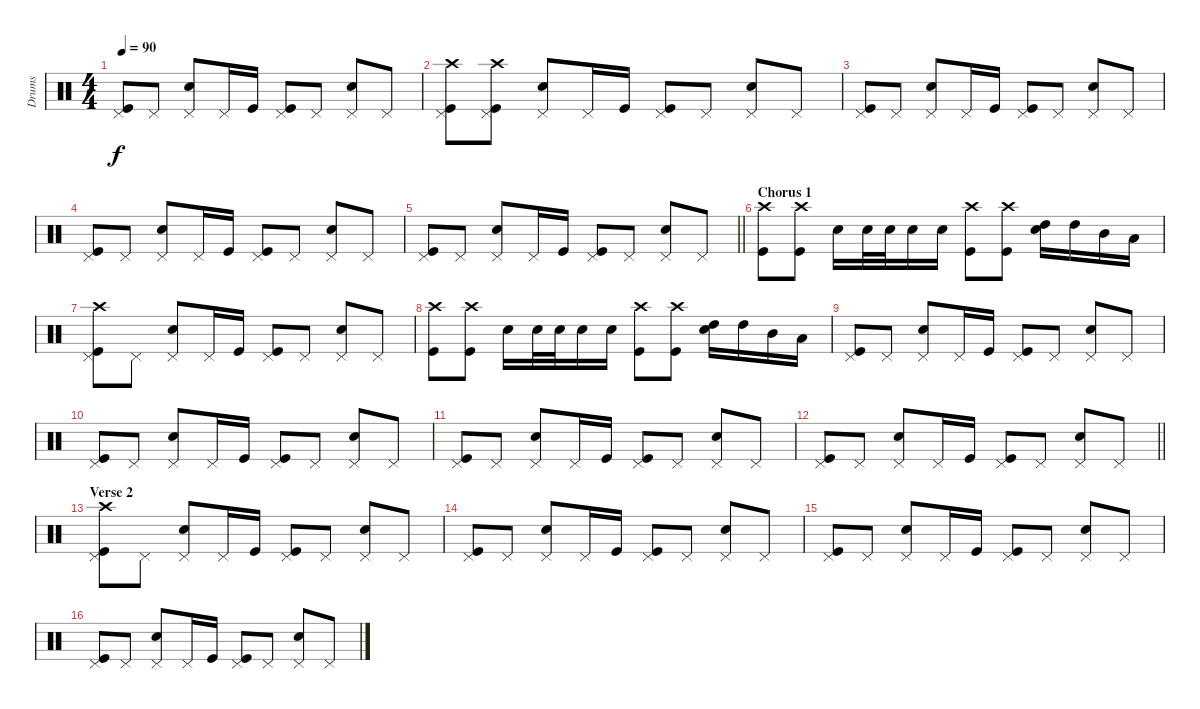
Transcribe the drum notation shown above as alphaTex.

\track ("Drums" "Drums") {instrument percussion}
\staff {score}
\articulation defaults
\ts (4 4)
\tempo 90
\clef neutral
\ks c
("Pedal Hi-Hat (hit)" "Kick (hit)").8{dy f} "Pedal Hi-Hat (hit)".8 ("Pedal Hi-Hat (hit)" "Snare (hit) 2").8 "Pedal Hi-Hat (hit)".16 "Kick (hit)".16 ("Pedal Hi-Hat (hit)" "Kick (hit)").8 "Pedal Hi-Hat (hit)".8 ("Pedal Hi-Hat (hit)" "Snare (hit) 2").8 "Pedal Hi-Hat (hit)".8 |
("Pedal Hi-Hat (hit)" "Kick (hit)" "Crash high (hit)").8 ("Pedal Hi-Hat (hit)" "Kick (hit)" "Crash high (hit)").8 ("Pedal Hi-Hat (hit)" "Snare (hit) 2").8 "Pedal Hi-Hat (hit)".16 "Kick (hit)".16 ("Pedal Hi-Hat (hit)" "Kick (hit)").8 "Pedal Hi-Hat (hit)".8 ("Pedal Hi-Hat (hit)" "Snare (hit) 2").8 "Pedal Hi-Hat (hit)".8 |
("Pedal Hi-Hat (hit)" "Kick (hit)").8 "Pedal Hi-Hat (hit)".8 ("Pedal Hi-Hat (hit)" "Snare (hit) 2").8 "Pedal Hi-Hat (hit)".16 "Kick (hit)".16 ("Pedal Hi-Hat (hit)" "Kick (hit)").8 "Pedal Hi-Hat (hit)".8 ("Pedal Hi-Hat (hit)" "Snare (hit) 2").8 "Pedal Hi-Hat (hit)".8 |
("Pedal Hi-Hat (hit)" "Kick (hit)").8 "Pedal Hi-Hat (hit)".8 ("Pedal Hi-Hat (hit)" "Snare (hit) 2").8 "Pedal Hi-Hat (hit)".16 "Kick (hit)".16 ("Pedal Hi-Hat (hit)" "Kick (hit)").8 "Pedal Hi-Hat (hit)".8 ("Pedal Hi-Hat (hit)" "Snare (hit) 2").8 "Pedal Hi-Hat (hit)".8 |
\barLineRight lightlight
("Pedal Hi-Hat (hit)" "Kick (hit)").8 "Pedal Hi-Hat (hit)".8 ("Pedal Hi-Hat (hit)" "Snare (hit) 2").8 "Pedal Hi-Hat (hit)".16 "Kick (hit)".16 ("Pedal Hi-Hat (hit)" "Kick (hit)").8 "Pedal Hi-Hat (hit)".8 ("Pedal Hi-Hat (hit)" "Snare (hit) 2").8 "Pedal Hi-Hat (hit)".8 |
\section ("" "Chorus 1")
("Kick (hit)" "Crash high (hit)").8 ("Kick (hit)" "Crash high (hit)").8 "Snare (hit) 2".16 "Snare (hit) 2".32 "Snare (hit) 2".32 "Snare (hit) 2".16 "Snare (hit) 2".16 ("Kick (hit)" "Crash high (hit)").8 ("Kick (hit)" "Crash high (hit)").8 ("Snare (hit) 2" "High Tom (hit)").16 "High Tom (hit)".16 "Mid Tom (hit)".16 "Low Tom (hit)".16 |
("Pedal Hi-Hat (hit)" "Kick (hit)" "Crash high (hit)").8 "Pedal Hi-Hat (hit)".8 ("Pedal Hi-Hat (hit)" "Snare (hit) 2").8 "Pedal Hi-Hat (hit)".16 "Kick (hit)".16 ("Pedal Hi-Hat (hit)" "Kick (hit)").8 "Pedal Hi-Hat (hit)".8 ("Pedal Hi-Hat (hit)" "Snare (hit) 2").8 "Pedal Hi-Hat (hit)".8 |
("Kick (hit)" "Crash high (hit)").8 ("Kick (hit)" "Crash high (hit)").8 "Snare (hit) 2".16 "Snare (hit) 2".32 "Snare (hit) 2".32 "Snare (hit) 2".16 "Snare (hit) 2".16 ("Kick (hit)" "Crash high (hit)").8 ("Kick (hit)" "Crash high (hit)").8 ("Snare (hit) 2" "High Tom (hit)").16 "High Tom (hit)".16 "Mid Tom (hit)".16 "Low Tom (hit)".16 |
("Pedal Hi-Hat (hit)" "Kick (hit)").8 "Pedal Hi-Hat (hit)".8 ("Pedal Hi-Hat (hit)" "Snare (hit) 2").8 "Pedal Hi-Hat (hit)".16 "Kick (hit)".16 ("Pedal Hi-Hat (hit)" "Kick (hit)").8 "Pedal Hi-Hat (hit)".8 ("Pedal Hi-Hat (hit)" "Snare (hit) 2").8 "Pedal Hi-Hat (hit)".8 |
("Pedal Hi-Hat (hit)" "Kick (hit)").8 "Pedal Hi-Hat (hit)".8 ("Pedal Hi-Hat (hit)" "Snare (hit) 2").8 "Pedal Hi-Hat (hit)".16 "Kick (hit)".16 ("Pedal Hi-Hat (hit)" "Kick (hit)").8 "Pedal Hi-Hat (hit)".8 ("Pedal Hi-Hat (hit)" "Snare (hit) 2").8 "Pedal Hi-Hat (hit)".8 |
("Pedal Hi-Hat (hit)" "Kick (hit)").8 "Pedal Hi-Hat (hit)".8 ("Pedal Hi-Hat (hit)" "Snare (hit) 2").8 "Pedal Hi-Hat (hit)".16 "Kick (hit)".16 ("Pedal Hi-Hat (hit)" "Kick (hit)").8 "Pedal Hi-Hat (hit)".8 ("Pedal Hi-Hat (hit)" "Snare (hit) 2").8 "Pedal Hi-Hat (hit)".8 |
\barLineRight lightlight
("Pedal Hi-Hat (hit)" "Kick (hit)").8 "Pedal Hi-Hat (hit)".8 ("Pedal Hi-Hat (hit)" "Snare (hit) 2").8 "Pedal Hi-Hat (hit)".16 "Kick (hit)".16 ("Pedal Hi-Hat (hit)" "Kick (hit)").8 "Pedal Hi-Hat (hit)".8 ("Pedal Hi-Hat (hit)" "Snare (hit) 2").8 "Pedal Hi-Hat (hit)".8 |
\section ("" "Verse 2")
("Pedal Hi-Hat (hit)" "Kick (hit)" "Crash high (hit)").8 "Pedal Hi-Hat (hit)".8 ("Pedal Hi-Hat (hit)" "Snare (hit) 2").8 "Pedal Hi-Hat (hit)".16 "Kick (hit)".16 ("Pedal Hi-Hat (hit)" "Kick (hit)").8 "Pedal Hi-Hat (hit)".8 ("Pedal Hi-Hat (hit)" "Snare (hit) 2").8 "Pedal Hi-Hat (hit)".8 |
("Pedal Hi-Hat (hit)" "Kick (hit)").8 "Pedal Hi-Hat (hit)".8 ("Pedal Hi-Hat (hit)" "Snare (hit) 2").8 "Pedal Hi-Hat (hit)".16 "Kick (hit)".16 ("Pedal Hi-Hat (hit)" "Kick (hit)").8 "Pedal Hi-Hat (hit)".8 ("Pedal Hi-Hat (hit)" "Snare (hit) 2").8 "Pedal Hi-Hat (hit)".8 |
("Pedal Hi-Hat (hit)" "Kick (hit)").8 "Pedal Hi-Hat (hit)".8 ("Pedal Hi-Hat (hit)" "Snare (hit) 2").8 "Pedal Hi-Hat (hit)".16 "Kick (hit)".16 ("Pedal Hi-Hat (hit)" "Kick (hit)").8 "Pedal Hi-Hat (hit)".8 ("Pedal Hi-Hat (hit)" "Snare (hit) 2").8 "Pedal Hi-Hat (hit)".8 |
("Pedal Hi-Hat (hit)" "Kick (hit)").8 "Pedal Hi-Hat (hit)".8 ("Pedal Hi-Hat (hit)" "Snare (hit) 2").8 "Pedal Hi-Hat (hit)".16 "Kick (hit)".16 ("Pedal Hi-Hat (hit)" "Kick (hit)").8 "Pedal Hi-Hat (hit)".8 ("Pedal Hi-Hat (hit)" "Snare (hit) 2").8 "Pedal Hi-Hat (hit)".8
